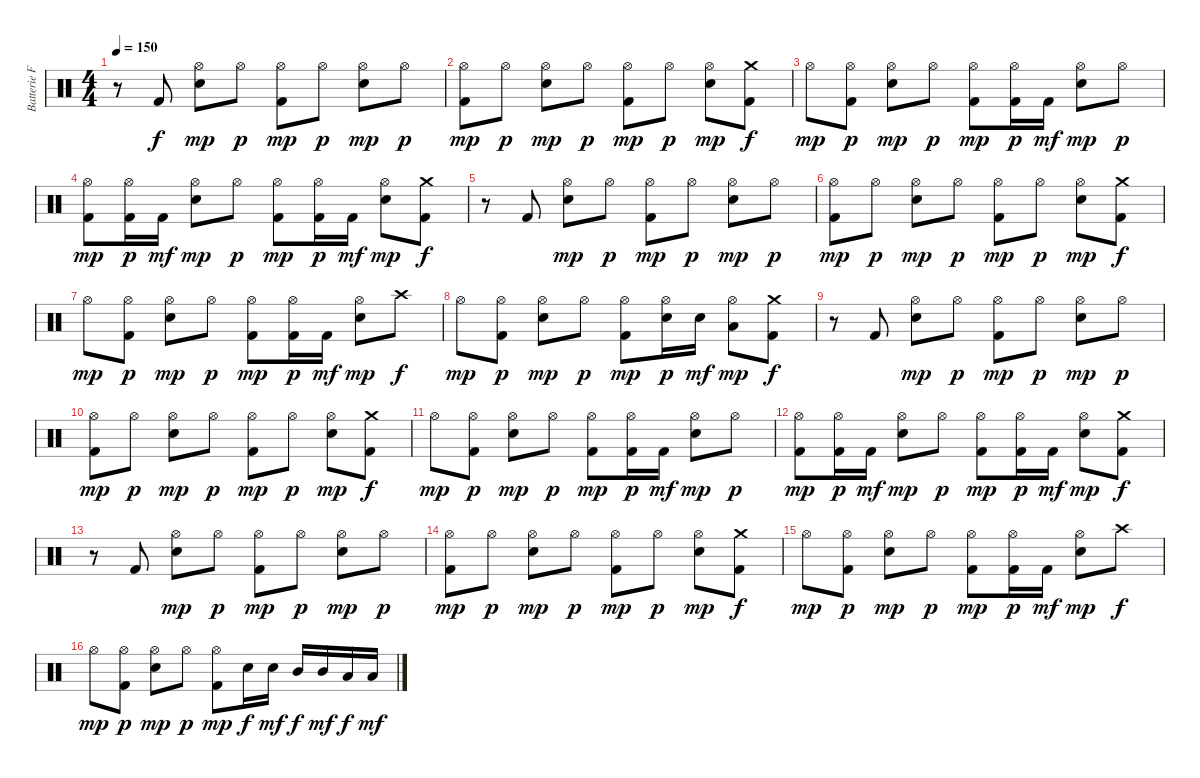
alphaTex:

\track ("Batterie Franck" "Batterie F") {instrument percussion}
\staff {score}
\articulation defaults
\ts (4 4)
\tempo 150
\clef neutral
\ks c
r.8{dy f} "Kick (hit) 2".8 ("Hi-Hat (open)" "Snare (hit) 2").8{dy mp} "Hi-Hat (open)".8{dy p} ("Hi-Hat (open)" "Kick (hit) 2").8{dy mp} "Hi-Hat (open)".8{dy p} ("Hi-Hat (open)" "Snare (hit) 2").8{dy mp} "Hi-Hat (open)".8{dy p} |
("Hi-Hat (open)" "Kick (hit) 2").8{dy mp} "Hi-Hat (open)".8{dy p} ("Hi-Hat (open)" "Snare (hit) 2").8{dy mp} "Hi-Hat (open)".8{dy p} ("Hi-Hat (open)" "Kick (hit) 2").8{dy mp} "Hi-Hat (open)".8{dy p} ("Hi-Hat (open)" "Snare (hit) 2").8{dy mp} ("Crash medium (hit)" "Kick (hit) 2").8{dy f} |
"Hi-Hat (open)".8{dy mp} ("Hi-Hat (open)" "Kick (hit) 2").8{dy p} ("Hi-Hat (open)" "Snare (hit) 2").8{dy mp} "Hi-Hat (open)".8{dy p} ("Hi-Hat (open)" "Kick (hit) 2").8{dy mp} ("Hi-Hat (open)" "Kick (hit) 2").16{dy p} "Kick (hit) 2".16{dy mf} ("Hi-Hat (open)" "Snare (hit) 2").8{dy mp} "Hi-Hat (open)".8{dy p} |
("Hi-Hat (open)" "Kick (hit) 2").8{dy mp} ("Hi-Hat (open)" "Kick (hit) 2").16{dy p} "Kick (hit) 2".16{dy mf} ("Hi-Hat (open)" "Snare (hit) 2").8{dy mp} "Hi-Hat (open)".8{dy p} ("Hi-Hat (open)" "Kick (hit) 2").8{dy mp} ("Hi-Hat (open)" "Kick (hit) 2").16{dy p} "Kick (hit) 2".16{dy mf} ("Hi-Hat (open)" "Snare (hit) 2").8{dy mp} ("Crash medium (hit)" "Kick (hit) 2").8{dy f} |
r.8 "Kick (hit) 2".8 ("Hi-Hat (open)" "Snare (hit) 2").8{dy mp} "Hi-Hat (open)".8{dy p} ("Hi-Hat (open)" "Kick (hit) 2").8{dy mp} "Hi-Hat (open)".8{dy p} ("Hi-Hat (open)" "Snare (hit) 2").8{dy mp} "Hi-Hat (open)".8{dy p} |
("Hi-Hat (open)" "Kick (hit) 2").8{dy mp} "Hi-Hat (open)".8{dy p} ("Hi-Hat (open)" "Snare (hit) 2").8{dy mp} "Hi-Hat (open)".8{dy p} ("Hi-Hat (open)" "Kick (hit) 2").8{dy mp} "Hi-Hat (open)".8{dy p} ("Hi-Hat (open)" "Snare (hit) 2").8{dy mp} ("Crash medium (hit)" "Kick (hit) 2").8{dy f} |
"Hi-Hat (open)".8{dy mp} ("Hi-Hat (open)" "Kick (hit) 2").8{dy p} ("Hi-Hat (open)" "Snare (hit) 2").8{dy mp} "Hi-Hat (open)".8{dy p} ("Hi-Hat (open)" "Kick (hit) 2").8{dy mp} ("Hi-Hat (open)" "Kick (hit) 2").16{dy p} "Kick (hit) 2".16{dy mf} ("Hi-Hat (open)" "Snare (hit) 2").8{dy mp} "Crash high (hit)".8{dy f} |
"Hi-Hat (open)".8{dy mp} ("Hi-Hat (open)" "Kick (hit) 2").8{dy p} ("Hi-Hat (open)" "Snare (hit) 2").8{dy mp} "Hi-Hat (open)".8{dy p} ("Hi-Hat (open)" "Kick (hit) 2").8{dy mp} ("Hi-Hat (open)" "Snare (hit) 2").16{dy p} "Snare (hit) 2".16{dy mf} ("Hi-Hat (open)" "Low Tom (hit)").8{dy mp} ("Crash medium (hit)" "Kick (hit) 2").8{dy f} |
r.8 "Kick (hit) 2".8 ("Hi-Hat (open)" "Snare (hit) 2").8{dy mp} "Hi-Hat (open)".8{dy p} ("Hi-Hat (open)" "Kick (hit) 2").8{dy mp} "Hi-Hat (open)".8{dy p} ("Hi-Hat (open)" "Snare (hit) 2").8{dy mp} "Hi-Hat (open)".8{dy p} |
("Hi-Hat (open)" "Kick (hit) 2").8{dy mp} "Hi-Hat (open)".8{dy p} ("Hi-Hat (open)" "Snare (hit) 2").8{dy mp} "Hi-Hat (open)".8{dy p} ("Hi-Hat (open)" "Kick (hit) 2").8{dy mp} "Hi-Hat (open)".8{dy p} ("Hi-Hat (open)" "Snare (hit) 2").8{dy mp} ("Crash medium (hit)" "Kick (hit) 2").8{dy f} |
"Hi-Hat (open)".8{dy mp} ("Hi-Hat (open)" "Kick (hit) 2").8{dy p} ("Hi-Hat (open)" "Snare (hit) 2").8{dy mp} "Hi-Hat (open)".8{dy p} ("Hi-Hat (open)" "Kick (hit) 2").8{dy mp} ("Hi-Hat (open)" "Kick (hit) 2").16{dy p} "Kick (hit) 2".16{dy mf} ("Hi-Hat (open)" "Snare (hit) 2").8{dy mp} "Hi-Hat (open)".8{dy p} |
("Hi-Hat (open)" "Kick (hit) 2").8{dy mp} ("Hi-Hat (open)" "Kick (hit) 2").16{dy p} "Kick (hit) 2".16{dy mf} ("Hi-Hat (open)" "Snare (hit) 2").8{dy mp} "Hi-Hat (open)".8{dy p} ("Hi-Hat (open)" "Kick (hit) 2").8{dy mp} ("Hi-Hat (open)" "Kick (hit) 2").16{dy p} "Kick (hit) 2".16{dy mf} ("Hi-Hat (open)" "Snare (hit) 2").8{dy mp} ("Crash medium (hit)" "Kick (hit) 2").8{dy f} |
r.8 "Kick (hit) 2".8 ("Hi-Hat (open)" "Snare (hit) 2").8{dy mp} "Hi-Hat (open)".8{dy p} ("Hi-Hat (open)" "Kick (hit) 2").8{dy mp} "Hi-Hat (open)".8{dy p} ("Hi-Hat (open)" "Snare (hit) 2").8{dy mp} "Hi-Hat (open)".8{dy p} |
("Hi-Hat (open)" "Kick (hit) 2").8{dy mp} "Hi-Hat (open)".8{dy p} ("Hi-Hat (open)" "Snare (hit) 2").8{dy mp} "Hi-Hat (open)".8{dy p} ("Hi-Hat (open)" "Kick (hit) 2").8{dy mp} "Hi-Hat (open)".8{dy p} ("Hi-Hat (open)" "Snare (hit) 2").8{dy mp} ("Crash medium (hit)" "Kick (hit) 2").8{dy f} |
"Hi-Hat (open)".8{dy mp} ("Hi-Hat (open)" "Kick (hit) 2").8{dy p} ("Hi-Hat (open)" "Snare (hit) 2").8{dy mp} "Hi-Hat (open)".8{dy p} ("Hi-Hat (open)" "Kick (hit) 2").8{dy mp} ("Hi-Hat (open)" "Kick (hit) 2").16{dy p} "Kick (hit) 2".16{dy mf} ("Hi-Hat (open)" "Snare (hit) 2").8{dy mp} "Crash high (hit)".8{dy f} |
"Hi-Hat (open)".8{dy mp} ("Hi-Hat (open)" "Kick (hit) 2").8{dy p} ("Hi-Hat (open)" "Snare (hit) 2").8{dy mp} "Hi-Hat (open)".8{dy p} ("Hi-Hat (open)" "Kick (hit) 2").8{dy mp} "Snare (hit) 2".16{dy f} "Snare (hit) 2".16{dy mf} "Mid Tom (hit)".16{dy f} "Mid Tom (hit)".16{dy mf} "Low Tom (hit)".16{dy f} "Low Tom (hit)".16{dy mf}
